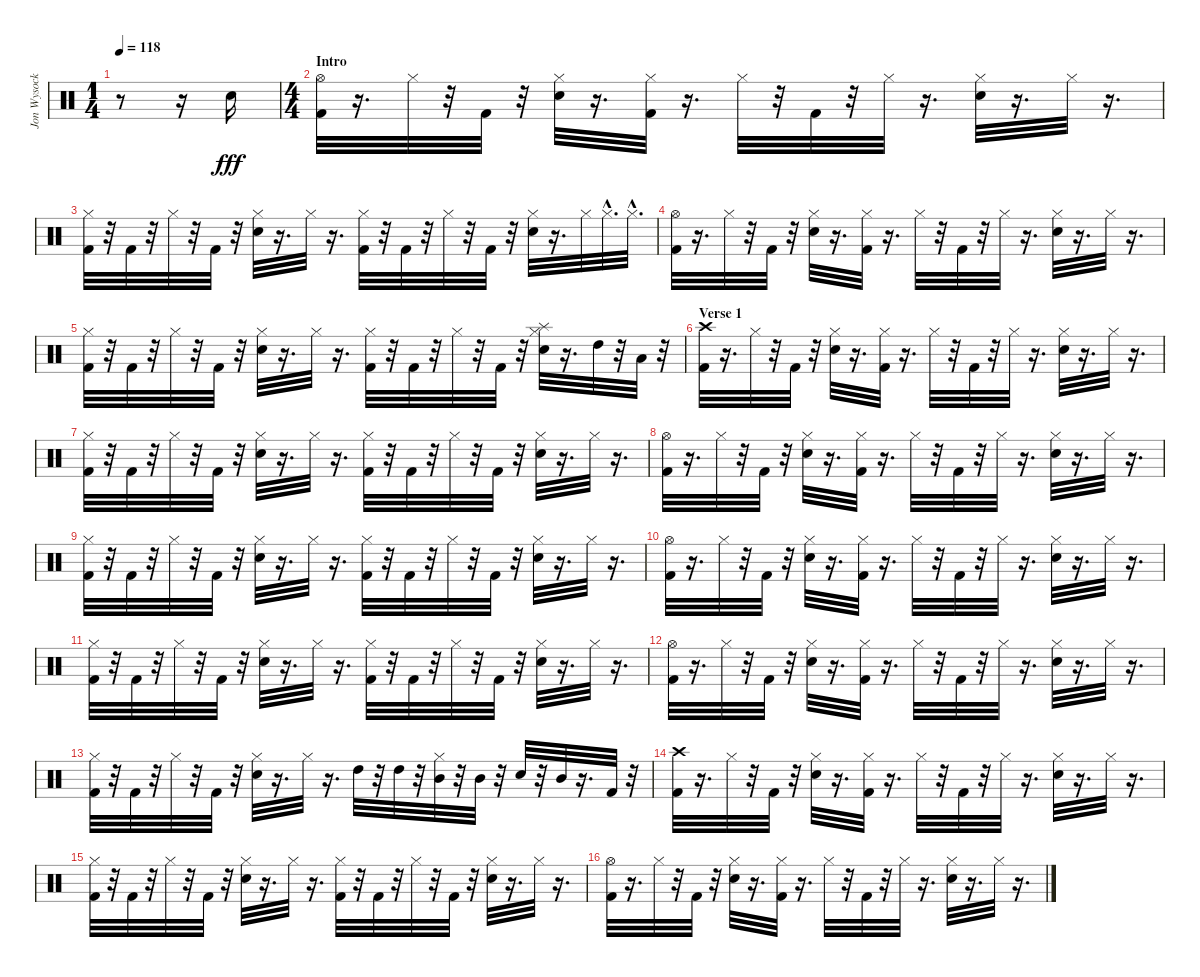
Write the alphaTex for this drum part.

\track ("Jon Wysocki - Drums" "Jon Wysock") {instrument percussion}
\staff {score}
\articulation defaults
\ts (1 4)
\tempo 118
\clef neutral
\ks c
r.8{dy fff} r.16 "Electric Snare (hit)".16 |
\ts (4 4)
\section ("" "Intro")
("Kick (hit) 2" "Hi-Hat (open)").32 r.16{d} "Hi-Hat (closed)".32 r.32 "Kick (hit) 2".32 r.32 ("Electric Snare (hit)" "Hi-Hat (closed)").32 r.16{d} ("Hi-Hat (closed)" "Kick (hit) 2").32 r.16{d} "Hi-Hat (closed)".32 r.32 "Kick (hit) 2".32 r.32 "Hi-Hat (closed)".32 r.16{d} ("Electric Snare (hit)" "Hi-Hat (closed)").32 r.16{d} "Hi-Hat (closed)".32 r.16{d} |
("Hi-Hat (closed)" "Kick (hit) 2").32 r.32 "Kick (hit) 2".32 r.32 "Hi-Hat (closed)".32 r.32 "Kick (hit) 2".32 r.32 ("Hi-Hat (closed)" "Electric Snare (hit)").32 r.16{d} "Hi-Hat (closed)".32 r.16{d} ("Hi-Hat (closed)" "Kick (hit) 2").32 r.32 "Kick (hit) 2".32 r.32 "Hi-Hat (closed)".32 r.32 "Kick (hit) 2".32 r.32 ("Hi-Hat (closed)" "Electric Snare (hit)").32 r.16{d} "Hi-Hat (closed)".32 "Hi-Hat (closed)"{hac}.32{d} "Hi-Hat (closed)"{hac}.32{d} |
("Kick (hit) 2" "Hi-Hat (open)").32 r.16{d} "Hi-Hat (closed)".32 r.32 "Kick (hit) 2".32 r.32 ("Electric Snare (hit)" "Hi-Hat (closed)").32 r.16{d} ("Hi-Hat (closed)" "Kick (hit) 2").32 r.16{d} "Hi-Hat (closed)".32 r.32 "Kick (hit) 2".32 r.32 "Hi-Hat (closed)".32 r.16{d} ("Electric Snare (hit)" "Hi-Hat (closed)").32 r.16{d} "Hi-Hat (closed)".32 r.16{d} |
("Hi-Hat (closed)" "Kick (hit) 2").32 r.32 "Kick (hit) 2".32 r.32 "Hi-Hat (closed)".32 r.32 "Kick (hit) 2".32 r.32 ("Hi-Hat (closed)" "Electric Snare (hit)").32 r.16{d} "Hi-Hat (closed)".32 r.16{d} ("Hi-Hat (closed)" "Kick (hit) 2").32 r.32 "Kick (hit) 2".32 r.32 "Hi-Hat (closed)".32 r.32 "Kick (hit) 2".32 r.32 ("Splash (hit)" "Hi-Hat (closed)" "Electric Snare (hit)").32 r.16{d} "High Tom (hit)".32 r.32 "Low Tom (hit)".32 r.32 |
\section ("" "Verse 1")
("Crash high (hit)" "Kick (hit) 2").32 r.16{d} "Hi-Hat (closed)".32 r.32 "Kick (hit) 2".32 r.32 ("Electric Snare (hit)" "Hi-Hat (closed)").32 r.16{d} ("Hi-Hat (closed)" "Kick (hit) 2").32 r.16{d} "Hi-Hat (closed)".32 r.32 "Kick (hit) 2".32 r.32 "Hi-Hat (closed)".32 r.16{d} ("Electric Snare (hit)" "Hi-Hat (closed)").32 r.16{d} "Hi-Hat (closed)".32 r.16{d} |
("Hi-Hat (closed)" "Kick (hit) 2").32 r.32 "Kick (hit) 2".32 r.32 "Hi-Hat (closed)".32 r.32 "Kick (hit) 2".32 r.32 ("Hi-Hat (closed)" "Electric Snare (hit)").32 r.16{d} "Hi-Hat (closed)".32 r.16{d} ("Hi-Hat (closed)" "Kick (hit) 2").32 r.32 "Kick (hit) 2".32 r.32 "Hi-Hat (closed)".32 r.32 "Kick (hit) 2".32 r.32 ("Hi-Hat (closed)" "Electric Snare (hit)").32 r.16{d} "Hi-Hat (closed)".32 r.16{d} |
("Kick (hit) 2" "Hi-Hat (open)").32 r.16{d} "Hi-Hat (closed)".32 r.32 "Kick (hit) 2".32 r.32 ("Electric Snare (hit)" "Hi-Hat (closed)").32 r.16{d} ("Hi-Hat (closed)" "Kick (hit) 2").32 r.16{d} "Hi-Hat (closed)".32 r.32 "Kick (hit) 2".32 r.32 "Hi-Hat (closed)".32 r.16{d} ("Electric Snare (hit)" "Hi-Hat (closed)").32 r.16{d} "Hi-Hat (closed)".32 r.16{d} |
("Hi-Hat (closed)" "Kick (hit) 2").32 r.32 "Kick (hit) 2".32 r.32 "Hi-Hat (closed)".32 r.32 "Kick (hit) 2".32 r.32 ("Hi-Hat (closed)" "Electric Snare (hit)").32 r.16{d} "Hi-Hat (closed)".32 r.16{d} ("Hi-Hat (closed)" "Kick (hit) 2").32 r.32 "Kick (hit) 2".32 r.32 "Hi-Hat (closed)".32 r.32 "Kick (hit) 2".32 r.32 ("Hi-Hat (closed)" "Electric Snare (hit)").32 r.16{d} "Hi-Hat (closed)".32 r.16{d} |
("Kick (hit) 2" "Hi-Hat (open)").32 r.16{d} "Hi-Hat (closed)".32 r.32 "Kick (hit) 2".32 r.32 ("Electric Snare (hit)" "Hi-Hat (closed)").32 r.16{d} ("Hi-Hat (closed)" "Kick (hit) 2").32 r.16{d} "Hi-Hat (closed)".32 r.32 "Kick (hit) 2".32 r.32 "Hi-Hat (closed)".32 r.16{d} ("Electric Snare (hit)" "Hi-Hat (closed)").32 r.16{d} "Hi-Hat (closed)".32 r.16{d} |
("Hi-Hat (closed)" "Kick (hit) 2").32 r.32 "Kick (hit) 2".32 r.32 "Hi-Hat (closed)".32 r.32 "Kick (hit) 2".32 r.32 ("Hi-Hat (closed)" "Electric Snare (hit)").32 r.16{d} "Hi-Hat (closed)".32 r.16{d} ("Hi-Hat (closed)" "Kick (hit) 2").32 r.32 "Kick (hit) 2".32 r.32 "Hi-Hat (closed)".32 r.32 "Kick (hit) 2".32 r.32 ("Hi-Hat (closed)" "Electric Snare (hit)").32 r.16{d} "Hi-Hat (closed)".32 r.16{d} |
("Kick (hit) 2" "Hi-Hat (open)").32 r.16{d} "Hi-Hat (closed)".32 r.32 "Kick (hit) 2".32 r.32 ("Electric Snare (hit)" "Hi-Hat (closed)").32 r.16{d} ("Hi-Hat (closed)" "Kick (hit) 2").32 r.16{d} "Hi-Hat (closed)".32 r.32 "Kick (hit) 2".32 r.32 "Hi-Hat (closed)".32 r.16{d} ("Electric Snare (hit)" "Hi-Hat (closed)").32 r.16{d} "Hi-Hat (closed)".32 r.16{d} |
("Hi-Hat (closed)" "Kick (hit) 2").32 r.32 "Kick (hit) 2".32 r.32 "Hi-Hat (closed)".32 r.32 "Kick (hit) 2".32 r.32 ("Hi-Hat (closed)" "Electric Snare (hit)").32 r.16{d} "Hi-Hat (closed)".32 r.16{d} "High Tom (hit)".32 r.32 "High Tom (hit)".32 r.32 ("Hi-Hat (closed)" "Mid Tom (hit)").32 r.32 "Mid Tom (hit)".32 r.32 "Electric Snare (hit)".32 r.32 "Mid Tom (hit)".32 r.16{d} "Kick (hit) 2".32 r.32 |
("Crash high (hit)" "Kick (hit) 2").32 r.16{d} "Hi-Hat (closed)".32 r.32 "Kick (hit) 2".32 r.32 ("Electric Snare (hit)" "Hi-Hat (closed)").32 r.16{d} ("Hi-Hat (closed)" "Kick (hit) 2").32 r.16{d} "Hi-Hat (closed)".32 r.32 "Kick (hit) 2".32 r.32 "Hi-Hat (closed)".32 r.16{d} ("Electric Snare (hit)" "Hi-Hat (closed)").32 r.16{d} "Hi-Hat (closed)".32 r.16{d} |
("Hi-Hat (closed)" "Kick (hit) 2").32 r.32 "Kick (hit) 2".32 r.32 "Hi-Hat (closed)".32 r.32 "Kick (hit) 2".32 r.32 ("Hi-Hat (closed)" "Electric Snare (hit)").32 r.16{d} "Hi-Hat (closed)".32 r.16{d} ("Hi-Hat (closed)" "Kick (hit) 2").32 r.32 "Kick (hit) 2".32 r.32 "Hi-Hat (closed)".32 r.32 "Kick (hit) 2".32 r.32 ("Hi-Hat (closed)" "Electric Snare (hit)").32 r.16{d} "Hi-Hat (closed)".32 r.16{d} |
("Kick (hit) 2" "Hi-Hat (open)").32 r.16{d} "Hi-Hat (closed)".32 r.32 "Kick (hit) 2".32 r.32 ("Electric Snare (hit)" "Hi-Hat (closed)").32 r.16{d} ("Hi-Hat (closed)" "Kick (hit) 2").32 r.16{d} "Hi-Hat (closed)".32 r.32 "Kick (hit) 2".32 r.32 "Hi-Hat (closed)".32 r.16{d} ("Electric Snare (hit)" "Hi-Hat (closed)").32 r.16{d} "Hi-Hat (closed)".32 r.16{d}
